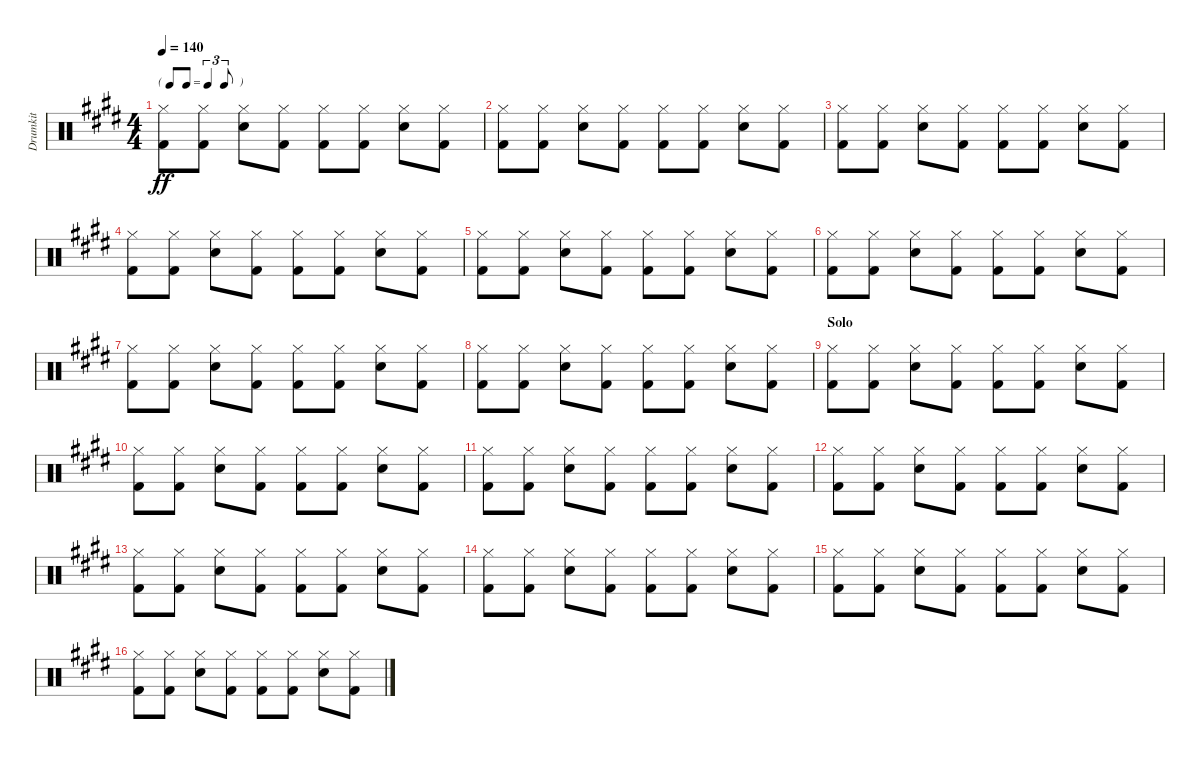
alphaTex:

\track ("Drumkit" "Drumkit") {instrument percussion}
\staff {score}
\articulation defaults
\ts (4 4)
\tf triplet8th
\tempo 140
\clef neutral
\ks e
("Hi-Hat (closed)" "Kick (hit) 2").8{dy ff} ("Hi-Hat (closed)" "Kick (hit) 2").8 ("Hi-Hat (closed)" "Snare (hit) 2").8 ("Hi-Hat (closed)" "Kick (hit) 2").8 ("Hi-Hat (closed)" "Kick (hit) 2").8 ("Hi-Hat (closed)" "Kick (hit) 2").8 ("Hi-Hat (closed)" "Snare (hit) 2").8 ("Hi-Hat (closed)" "Kick (hit) 2").8 |
("Hi-Hat (closed)" "Kick (hit) 2").8 ("Hi-Hat (closed)" "Kick (hit) 2").8 ("Hi-Hat (closed)" "Snare (hit) 2").8 ("Hi-Hat (closed)" "Kick (hit) 2").8 ("Hi-Hat (closed)" "Kick (hit) 2").8 ("Hi-Hat (closed)" "Kick (hit) 2").8 ("Hi-Hat (closed)" "Snare (hit) 2").8 ("Hi-Hat (closed)" "Kick (hit) 2").8 |
("Hi-Hat (closed)" "Kick (hit) 2").8 ("Hi-Hat (closed)" "Kick (hit) 2").8 ("Hi-Hat (closed)" "Snare (hit) 2").8 ("Hi-Hat (closed)" "Kick (hit) 2").8 ("Hi-Hat (closed)" "Kick (hit) 2").8 ("Hi-Hat (closed)" "Kick (hit) 2").8 ("Hi-Hat (closed)" "Snare (hit) 2").8 ("Hi-Hat (closed)" "Kick (hit) 2").8 |
("Hi-Hat (closed)" "Kick (hit) 2").8 ("Hi-Hat (closed)" "Kick (hit) 2").8 ("Hi-Hat (closed)" "Snare (hit) 2").8 ("Hi-Hat (closed)" "Kick (hit) 2").8 ("Hi-Hat (closed)" "Kick (hit) 2").8 ("Hi-Hat (closed)" "Kick (hit) 2").8 ("Hi-Hat (closed)" "Snare (hit) 2").8 ("Hi-Hat (closed)" "Kick (hit) 2").8 |
("Hi-Hat (closed)" "Kick (hit) 2").8 ("Hi-Hat (closed)" "Kick (hit) 2").8 ("Hi-Hat (closed)" "Snare (hit) 2").8 ("Hi-Hat (closed)" "Kick (hit) 2").8 ("Hi-Hat (closed)" "Kick (hit) 2").8 ("Hi-Hat (closed)" "Kick (hit) 2").8 ("Hi-Hat (closed)" "Snare (hit) 2").8 ("Hi-Hat (closed)" "Kick (hit) 2").8 |
("Hi-Hat (closed)" "Kick (hit) 2").8 ("Hi-Hat (closed)" "Kick (hit) 2").8 ("Hi-Hat (closed)" "Snare (hit) 2").8 ("Hi-Hat (closed)" "Kick (hit) 2").8 ("Hi-Hat (closed)" "Kick (hit) 2").8 ("Hi-Hat (closed)" "Kick (hit) 2").8 ("Hi-Hat (closed)" "Snare (hit) 2").8 ("Hi-Hat (closed)" "Kick (hit) 2").8 |
("Hi-Hat (closed)" "Kick (hit) 2").8 ("Hi-Hat (closed)" "Kick (hit) 2").8 ("Hi-Hat (closed)" "Snare (hit) 2").8 ("Hi-Hat (closed)" "Kick (hit) 2").8 ("Hi-Hat (closed)" "Kick (hit) 2").8 ("Hi-Hat (closed)" "Kick (hit) 2").8 ("Hi-Hat (closed)" "Snare (hit) 2").8 ("Hi-Hat (closed)" "Kick (hit) 2").8 |
("Hi-Hat (closed)" "Kick (hit) 2").8 ("Hi-Hat (closed)" "Kick (hit) 2").8 ("Hi-Hat (closed)" "Snare (hit) 2").8 ("Hi-Hat (closed)" "Kick (hit) 2").8 ("Hi-Hat (closed)" "Kick (hit) 2").8 ("Hi-Hat (closed)" "Kick (hit) 2").8 ("Hi-Hat (closed)" "Snare (hit) 2").8 ("Hi-Hat (closed)" "Kick (hit) 2").8 |
\section ("" "Solo")
("Hi-Hat (closed)" "Kick (hit) 2").8 ("Hi-Hat (closed)" "Kick (hit) 2").8 ("Hi-Hat (closed)" "Snare (hit) 2").8 ("Hi-Hat (closed)" "Kick (hit) 2").8 ("Hi-Hat (closed)" "Kick (hit) 2").8 ("Hi-Hat (closed)" "Kick (hit) 2").8 ("Hi-Hat (closed)" "Snare (hit) 2").8 ("Hi-Hat (closed)" "Kick (hit) 2").8 |
("Hi-Hat (closed)" "Kick (hit) 2").8 ("Hi-Hat (closed)" "Kick (hit) 2").8 ("Hi-Hat (closed)" "Snare (hit) 2").8 ("Hi-Hat (closed)" "Kick (hit) 2").8 ("Hi-Hat (closed)" "Kick (hit) 2").8 ("Hi-Hat (closed)" "Kick (hit) 2").8 ("Hi-Hat (closed)" "Snare (hit) 2").8 ("Hi-Hat (closed)" "Kick (hit) 2").8 |
("Hi-Hat (closed)" "Kick (hit) 2").8 ("Hi-Hat (closed)" "Kick (hit) 2").8 ("Hi-Hat (closed)" "Snare (hit) 2").8 ("Hi-Hat (closed)" "Kick (hit) 2").8 ("Hi-Hat (closed)" "Kick (hit) 2").8 ("Hi-Hat (closed)" "Kick (hit) 2").8 ("Hi-Hat (closed)" "Snare (hit) 2").8 ("Hi-Hat (closed)" "Kick (hit) 2").8 |
("Hi-Hat (closed)" "Kick (hit) 2").8 ("Hi-Hat (closed)" "Kick (hit) 2").8 ("Hi-Hat (closed)" "Snare (hit) 2").8 ("Hi-Hat (closed)" "Kick (hit) 2").8 ("Hi-Hat (closed)" "Kick (hit) 2").8 ("Hi-Hat (closed)" "Kick (hit) 2").8 ("Hi-Hat (closed)" "Snare (hit) 2").8 ("Hi-Hat (closed)" "Kick (hit) 2").8 |
("Hi-Hat (closed)" "Kick (hit) 2").8 ("Hi-Hat (closed)" "Kick (hit) 2").8 ("Hi-Hat (closed)" "Snare (hit) 2").8 ("Hi-Hat (closed)" "Kick (hit) 2").8 ("Hi-Hat (closed)" "Kick (hit) 2").8 ("Hi-Hat (closed)" "Kick (hit) 2").8 ("Hi-Hat (closed)" "Snare (hit) 2").8 ("Hi-Hat (closed)" "Kick (hit) 2").8 |
("Hi-Hat (closed)" "Kick (hit) 2").8 ("Hi-Hat (closed)" "Kick (hit) 2").8 ("Hi-Hat (closed)" "Snare (hit) 2").8 ("Hi-Hat (closed)" "Kick (hit) 2").8 ("Hi-Hat (closed)" "Kick (hit) 2").8 ("Hi-Hat (closed)" "Kick (hit) 2").8 ("Hi-Hat (closed)" "Snare (hit) 2").8 ("Hi-Hat (closed)" "Kick (hit) 2").8 |
("Hi-Hat (closed)" "Kick (hit) 2").8 ("Hi-Hat (closed)" "Kick (hit) 2").8 ("Hi-Hat (closed)" "Snare (hit) 2").8 ("Hi-Hat (closed)" "Kick (hit) 2").8 ("Hi-Hat (closed)" "Kick (hit) 2").8 ("Hi-Hat (closed)" "Kick (hit) 2").8 ("Hi-Hat (closed)" "Snare (hit) 2").8 ("Hi-Hat (closed)" "Kick (hit) 2").8 |
("Hi-Hat (closed)" "Kick (hit) 2").8 ("Hi-Hat (closed)" "Kick (hit) 2").8 ("Hi-Hat (closed)" "Snare (hit) 2").8 ("Hi-Hat (closed)" "Kick (hit) 2").8 ("Hi-Hat (closed)" "Kick (hit) 2").8 ("Hi-Hat (closed)" "Kick (hit) 2").8 ("Hi-Hat (closed)" "Snare (hit) 2").8 ("Hi-Hat (closed)" "Kick (hit) 2").8
